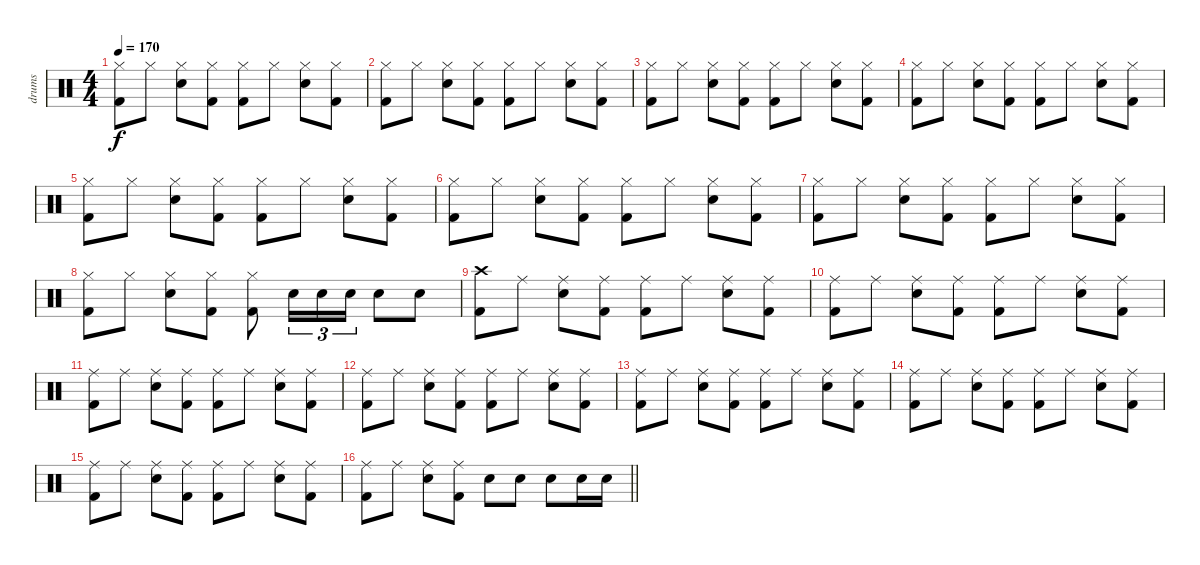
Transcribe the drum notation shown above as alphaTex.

\track ("drums" "drums") {instrument percussion}
\staff {score}
\articulation defaults
\ts (4 4)
\tempo 170
\clef neutral
\ks c
("Hi-Hat (closed)" "Kick (hit) 2").8{dy f} "Hi-Hat (closed)".8 ("Hi-Hat (closed)" "Snare (hit) 2").8 ("Hi-Hat (closed)" "Kick (hit) 2").8 ("Hi-Hat (closed)" "Kick (hit) 2").8 "Hi-Hat (closed)".8 ("Hi-Hat (closed)" "Snare (hit) 2").8 ("Hi-Hat (closed)" "Kick (hit) 2").8 |
("Hi-Hat (closed)" "Kick (hit) 2").8 "Hi-Hat (closed)".8 ("Hi-Hat (closed)" "Snare (hit) 2").8 ("Hi-Hat (closed)" "Kick (hit) 2").8 ("Hi-Hat (closed)" "Kick (hit) 2").8 "Hi-Hat (closed)".8 ("Hi-Hat (closed)" "Snare (hit) 2").8 ("Hi-Hat (closed)" "Kick (hit) 2").8 |
("Hi-Hat (closed)" "Kick (hit) 2").8 "Hi-Hat (closed)".8 ("Hi-Hat (closed)" "Snare (hit) 2").8 ("Hi-Hat (closed)" "Kick (hit) 2").8 ("Hi-Hat (closed)" "Kick (hit) 2").8 "Hi-Hat (closed)".8 ("Hi-Hat (closed)" "Snare (hit) 2").8 ("Hi-Hat (closed)" "Kick (hit) 2").8 |
("Hi-Hat (closed)" "Kick (hit) 2").8 "Hi-Hat (closed)".8 ("Hi-Hat (closed)" "Snare (hit) 2").8 ("Hi-Hat (closed)" "Kick (hit) 2").8 ("Hi-Hat (closed)" "Kick (hit) 2").8 "Hi-Hat (closed)".8 ("Hi-Hat (closed)" "Snare (hit) 2").8 ("Hi-Hat (closed)" "Kick (hit) 2").8 |
("Hi-Hat (closed)" "Kick (hit) 2").8 "Hi-Hat (closed)".8 ("Hi-Hat (closed)" "Snare (hit) 2").8 ("Hi-Hat (closed)" "Kick (hit) 2").8 ("Hi-Hat (closed)" "Kick (hit) 2").8 "Hi-Hat (closed)".8 ("Hi-Hat (closed)" "Snare (hit) 2").8 ("Hi-Hat (closed)" "Kick (hit) 2").8 |
("Hi-Hat (closed)" "Kick (hit) 2").8 "Hi-Hat (closed)".8 ("Hi-Hat (closed)" "Snare (hit) 2").8 ("Hi-Hat (closed)" "Kick (hit) 2").8 ("Hi-Hat (closed)" "Kick (hit) 2").8 "Hi-Hat (closed)".8 ("Hi-Hat (closed)" "Snare (hit) 2").8 ("Hi-Hat (closed)" "Kick (hit) 2").8 |
("Hi-Hat (closed)" "Kick (hit) 2").8 "Hi-Hat (closed)".8 ("Hi-Hat (closed)" "Snare (hit) 2").8 ("Hi-Hat (closed)" "Kick (hit) 2").8 ("Hi-Hat (closed)" "Kick (hit) 2").8 "Hi-Hat (closed)".8 ("Hi-Hat (closed)" "Snare (hit) 2").8 ("Hi-Hat (closed)" "Kick (hit) 2").8 |
("Hi-Hat (closed)" "Kick (hit) 2").8 "Hi-Hat (closed)".8 ("Hi-Hat (closed)" "Snare (hit) 2").8 ("Hi-Hat (closed)" "Kick (hit) 2").8 ("Hi-Hat (closed)" "Kick (hit) 2").8 "Snare (hit) 2".16{tu (3 2)} "Snare (hit) 2".16{tu (3 2)} "Snare (hit) 2".16{tu (3 2)} "Snare (hit) 2".8 "Snare (hit) 2".8 |
("Crash high (hit)" "Kick (hit) 2").8 "Ride (middle)".8 ("Ride (middle)" "Snare (hit) 2").8 ("Ride (middle)" "Kick (hit) 2").8 ("Ride (middle)" "Kick (hit) 2").8 "Ride (middle)".8 ("Ride (middle)" "Snare (hit) 2").8 ("Ride (middle)" "Kick (hit) 2").8 |
("Ride (middle)" "Kick (hit) 2").8 "Ride (middle)".8 ("Ride (middle)" "Snare (hit) 2").8 ("Ride (middle)" "Kick (hit) 2").8 ("Ride (middle)" "Kick (hit) 2").8 "Ride (middle)".8 ("Ride (middle)" "Snare (hit) 2").8 ("Ride (middle)" "Kick (hit) 2").8 |
("Ride (middle)" "Kick (hit) 2").8 "Ride (middle)".8 ("Ride (middle)" "Snare (hit) 2").8 ("Ride (middle)" "Kick (hit) 2").8 ("Ride (middle)" "Kick (hit) 2").8 "Ride (middle)".8 ("Ride (middle)" "Snare (hit) 2").8 ("Ride (middle)" "Kick (hit) 2").8 |
("Ride (middle)" "Kick (hit) 2").8 "Ride (middle)".8 ("Ride (middle)" "Snare (hit) 2").8 ("Ride (middle)" "Kick (hit) 2").8 ("Ride (middle)" "Kick (hit) 2").8 "Ride (middle)".8 ("Ride (middle)" "Snare (hit) 2").8 ("Ride (middle)" "Kick (hit) 2").8 |
("Ride (middle)" "Kick (hit) 2").8 "Ride (middle)".8 ("Ride (middle)" "Snare (hit) 2").8 ("Ride (middle)" "Kick (hit) 2").8 ("Ride (middle)" "Kick (hit) 2").8 "Ride (middle)".8 ("Ride (middle)" "Snare (hit) 2").8 ("Ride (middle)" "Kick (hit) 2").8 |
("Ride (middle)" "Kick (hit) 2").8 "Ride (middle)".8 ("Ride (middle)" "Snare (hit) 2").8 ("Ride (middle)" "Kick (hit) 2").8 ("Ride (middle)" "Kick (hit) 2").8 "Ride (middle)".8 ("Ride (middle)" "Snare (hit) 2").8 ("Ride (middle)" "Kick (hit) 2").8 |
("Ride (middle)" "Kick (hit) 2").8 "Ride (middle)".8 ("Ride (middle)" "Snare (hit) 2").8 ("Ride (middle)" "Kick (hit) 2").8 ("Ride (middle)" "Kick (hit) 2").8 "Ride (middle)".8 ("Ride (middle)" "Snare (hit) 2").8 ("Ride (middle)" "Kick (hit) 2").8 |
\barLineRight lightlight
("Ride (middle)" "Kick (hit) 2").8 "Ride (middle)".8 ("Ride (middle)" "Snare (hit) 2").8 ("Ride (middle)" "Kick (hit) 2").8 "Snare (hit) 2".8 "Snare (hit) 2".8 "Snare (hit) 2".8 "Snare (hit) 2".16 "Snare (hit) 2".16
